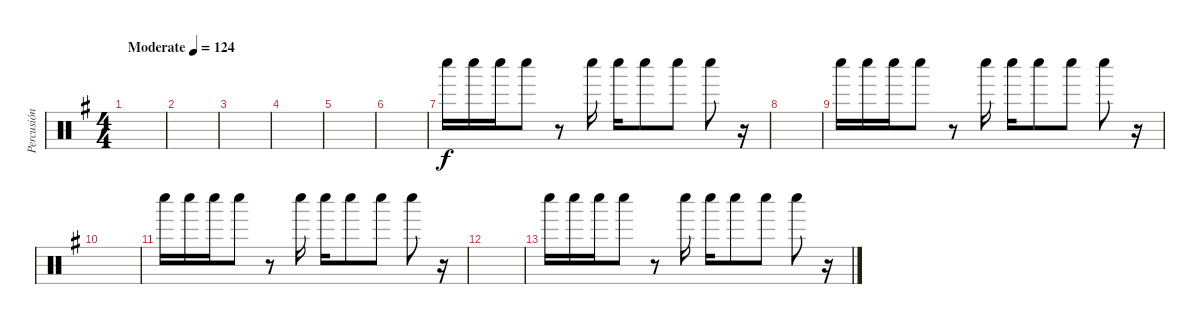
\track ("Percusión" "Percusión") {instrument percussion}
\staff {score}
\articulation defaults
\ts (4 4)
\tempo (124 "Moderate")
\clef neutral
\ks g
|
|
|
|
|
|
"Whistle low (hit)".16 "Whistle low (hit)".16 "Whistle low (hit)".16 "Whistle low (hit)".8 r.8 "Whistle low (hit)".16 "Whistle low (hit)".16 "Whistle low (hit)".8 "Whistle low (hit)".8 "Whistle low (hit)".8 r.16 |
|
"Whistle low (hit)".16 "Whistle low (hit)".16 "Whistle low (hit)".16 "Whistle low (hit)".8 r.8 "Whistle low (hit)".16 "Whistle low (hit)".16 "Whistle low (hit)".8 "Whistle low (hit)".8 "Whistle low (hit)".8 r.16 |
|
"Whistle low (hit)".16 "Whistle low (hit)".16 "Whistle low (hit)".16 "Whistle low (hit)".8 r.8 "Whistle low (hit)".16 "Whistle low (hit)".16 "Whistle low (hit)".8 "Whistle low (hit)".8 "Whistle low (hit)".8 r.16 |
|
"Whistle low (hit)".16 "Whistle low (hit)".16 "Whistle low (hit)".16 "Whistle low (hit)".8 r.8 "Whistle low (hit)".16 "Whistle low (hit)".16 "Whistle low (hit)".8 "Whistle low (hit)".8 "Whistle low (hit)".8 r.16
